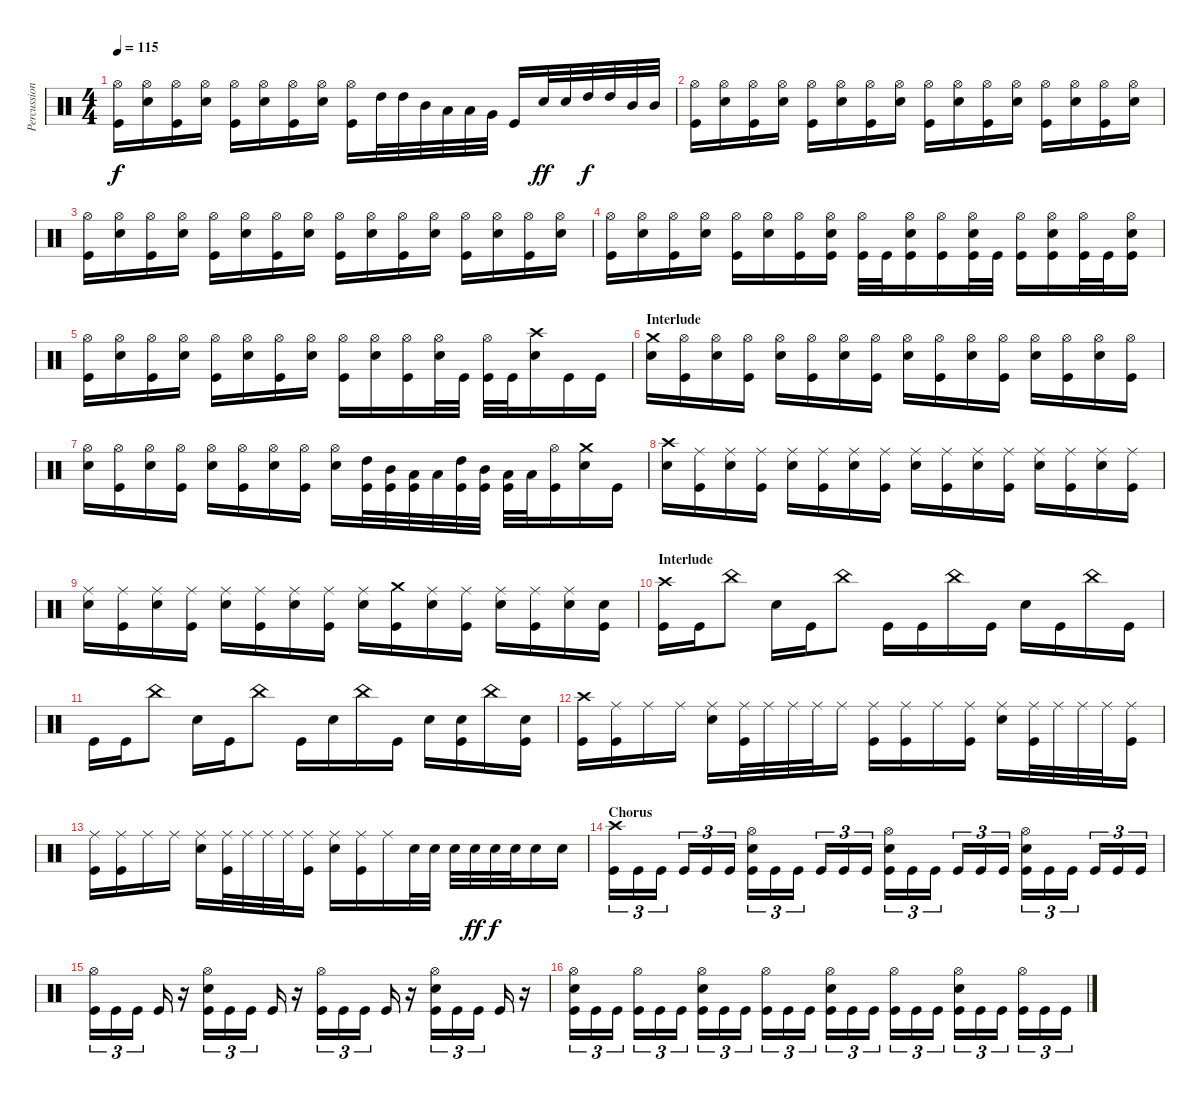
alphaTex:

\track ("Percussion" "Percussion") {instrument percussion}
\staff {score}
\articulation defaults
\ts (4 4)
\tempo 115
\clef neutral
\ks c
("Hi-Hat (open)" "Kick (hit)").16{dy f} ("Hi-Hat (open)" "Electric Snare (hit)").16 ("Hi-Hat (open)" "Kick (hit)").16 ("Hi-Hat (open)" "Electric Snare (hit)").16 ("Hi-Hat (open)" "Kick (hit)").16 ("Hi-Hat (open)" "Electric Snare (hit)").16 ("Hi-Hat (open)" "Kick (hit)").16 ("Hi-Hat (open)" "Electric Snare (hit)").16 ("Hi-Hat (open)" "Kick (hit)").16 "High Tom (hit)".32 "High Tom (hit)".32 "Mid Tom (hit)".32 "Low Tom (hit)".32 "Low Tom (hit)".32 "Very Low Tom (hit)".32 "Kick (hit)".16 "Electric Snare (hit)".32{dy ff} "Electric Snare (hit)".32 "High Tom (hit)".32{dy f} "High Tom (hit)".32 "Mid Tom (hit)".32 "Mid Tom (hit)".32 |
("Hi-Hat (open)" "Kick (hit)").16 ("Hi-Hat (open)" "Electric Snare (hit)").16 ("Hi-Hat (open)" "Kick (hit)").16 ("Hi-Hat (open)" "Electric Snare (hit)").16 ("Hi-Hat (open)" "Kick (hit)").16 ("Hi-Hat (open)" "Electric Snare (hit)").16 ("Hi-Hat (open)" "Kick (hit)").16 ("Hi-Hat (open)" "Electric Snare (hit)").16 ("Hi-Hat (open)" "Kick (hit)").16 ("Hi-Hat (open)" "Electric Snare (hit)").16 ("Hi-Hat (open)" "Kick (hit)").16 ("Hi-Hat (open)" "Electric Snare (hit)").16 ("Hi-Hat (open)" "Kick (hit)").16 ("Hi-Hat (open)" "Electric Snare (hit)").16 ("Hi-Hat (open)" "Kick (hit)").16 ("Hi-Hat (open)" "Electric Snare (hit)").16 |
("Hi-Hat (open)" "Kick (hit)").16 ("Hi-Hat (open)" "Electric Snare (hit)").16 ("Hi-Hat (open)" "Kick (hit)").16 ("Hi-Hat (open)" "Electric Snare (hit)").16 ("Hi-Hat (open)" "Kick (hit)").16 ("Hi-Hat (open)" "Electric Snare (hit)").16 ("Hi-Hat (open)" "Kick (hit)").16 ("Hi-Hat (open)" "Electric Snare (hit)").16 ("Hi-Hat (open)" "Kick (hit)").16 ("Hi-Hat (open)" "Electric Snare (hit)").16 ("Hi-Hat (open)" "Kick (hit)").16 ("Hi-Hat (open)" "Electric Snare (hit)").16 ("Hi-Hat (open)" "Kick (hit)").16 ("Hi-Hat (open)" "Electric Snare (hit)").16 ("Hi-Hat (open)" "Kick (hit)").16 ("Hi-Hat (open)" "Electric Snare (hit)").16 |
("Hi-Hat (open)" "Kick (hit)").16 ("Hi-Hat (open)" "Electric Snare (hit)").16 ("Hi-Hat (open)" "Kick (hit)").16 ("Hi-Hat (open)" "Electric Snare (hit)").16 ("Hi-Hat (open)" "Kick (hit)").16 ("Hi-Hat (open)" "Electric Snare (hit)").16 ("Hi-Hat (open)" "Kick (hit)").16 ("Hi-Hat (open)" "Electric Snare (hit)" "Kick (hit)").16 ("Hi-Hat (open)" "Kick (hit)").32 "Kick (hit)".32 ("Hi-Hat (open)" "Electric Snare (hit)" "Kick (hit)").16 ("Hi-Hat (open)" "Kick (hit)").16 ("Hi-Hat (open)" "Electric Snare (hit)" "Kick (hit)").32 "Kick (hit)".32 ("Hi-Hat (open)" "Kick (hit)").16 ("Hi-Hat (open)" "Electric Snare (hit)" "Kick (hit)").16 ("Hi-Hat (open)" "Kick (hit)").32 "Kick (hit)".32 ("Hi-Hat (open)" "Electric Snare (hit)" "Kick (hit)").16 |
("Hi-Hat (open)" "Kick (hit)").16 ("Hi-Hat (open)" "Electric Snare (hit)").16 ("Hi-Hat (open)" "Kick (hit)").16 ("Hi-Hat (open)" "Electric Snare (hit)").16 ("Hi-Hat (open)" "Kick (hit)").16 ("Hi-Hat (open)" "Electric Snare (hit)").16 ("Hi-Hat (open)" "Kick (hit)").16 ("Hi-Hat (open)" "Electric Snare (hit)").16 ("Hi-Hat (open)" "Kick (hit)").16 ("Hi-Hat (open)" "Electric Snare (hit)").16 ("Hi-Hat (open)" "Kick (hit)").16 ("Hi-Hat (open)" "Electric Snare (hit)").32 "Kick (hit)".32 ("Hi-Hat (open)" "Kick (hit)").32 "Kick (hit)".32 ("Crash high (hit)" "Electric Snare (hit)").16 "Kick (hit)".16 "Kick (hit)".16 |
\section ("" "Interlude")
("Crash medium (hit)" "Electric Snare (hit)").16 ("Hi-Hat (open)" "Kick (hit)").16 ("Hi-Hat (open)" "Electric Snare (hit)").16 ("Hi-Hat (open)" "Kick (hit)").16 ("Hi-Hat (open)" "Electric Snare (hit)").16 ("Hi-Hat (open)" "Kick (hit)").16 ("Hi-Hat (open)" "Electric Snare (hit)").16 ("Hi-Hat (open)" "Kick (hit)").16 ("Hi-Hat (open)" "Electric Snare (hit)").16 ("Hi-Hat (open)" "Kick (hit)").16 ("Hi-Hat (open)" "Electric Snare (hit)").16 ("Hi-Hat (open)" "Kick (hit)").16 ("Hi-Hat (open)" "Electric Snare (hit)").16 ("Hi-Hat (open)" "Kick (hit)").16 ("Hi-Hat (open)" "Electric Snare (hit)").16 ("Hi-Hat (open)" "Kick (hit)").16 |
("Hi-Hat (open)" "Electric Snare (hit)").16 ("Hi-Hat (open)" "Kick (hit)").16 ("Hi-Hat (open)" "Electric Snare (hit)").16 ("Hi-Hat (open)" "Kick (hit)").16 ("Hi-Hat (open)" "Electric Snare (hit)").16 ("Hi-Hat (open)" "Kick (hit)").16 ("Hi-Hat (open)" "Electric Snare (hit)").16 ("Hi-Hat (open)" "Kick (hit)").16 ("Hi-Hat (open)" "Electric Snare (hit)").16 ("High Tom (hit)" "Kick (hit)").32 ("Mid Tom (hit)" "Kick (hit)").32 ("Low Tom (hit)" "Kick (hit)").32 "Low Tom (hit)".32 ("High Tom (hit)" "Kick (hit)").32 ("Mid Tom (hit)" "Kick (hit)").32 ("Low Tom (hit)" "Kick (hit)").32 "Low Tom (hit)".32 ("Hi-Hat (open)" "Kick (hit)").16 ("Crash medium (hit)" "Electric Snare (hit)").16 "Kick (hit)".16 |
("Crash high (hit)" "Electric Snare (hit)").16 ("Ride (middle)" "Kick (hit)").16 ("Ride (middle)" "Electric Snare (hit)").16 ("Ride (middle)" "Kick (hit)").16 ("Ride (middle)" "Electric Snare (hit)").16 ("Ride (middle)" "Kick (hit)").16 ("Ride (middle)" "Electric Snare (hit)").16 ("Ride (middle)" "Kick (hit)").16 ("Ride (middle)" "Electric Snare (hit)").16 ("Ride (middle)" "Kick (hit)").16 ("Ride (middle)" "Electric Snare (hit)").16 ("Ride (middle)" "Kick (hit)").16 ("Ride (middle)" "Electric Snare (hit)").16 ("Ride (middle)" "Kick (hit)").16 ("Ride (middle)" "Electric Snare (hit)").16 ("Ride (middle)" "Kick (hit)").16 |
("Ride (middle)" "Electric Snare (hit)").16 ("Ride (middle)" "Kick (hit)").16 ("Ride (middle)" "Electric Snare (hit)").16 ("Ride (middle)" "Kick (hit)").16 ("Ride (middle)" "Electric Snare (hit)").16 ("Ride (middle)" "Kick (hit)").16 ("Ride (middle)" "Electric Snare (hit)").16 ("Ride (middle)" "Kick (hit)").16 ("Ride (middle)" "Electric Snare (hit)").16 ("Crash medium (hit)" "Kick (hit)").16 ("Ride (middle)" "Electric Snare (hit)").16 ("Ride (middle)" "Kick (hit)").16 ("Ride (middle)" "Electric Snare (hit)").16 ("Ride (middle)" "Kick (hit)").16 ("Ride (middle)" "Electric Snare (hit)").16 ("Electric Snare (hit)" "Kick (hit)").16 |
\section ("" "Interlude")
("Crash high (hit)" "Kick (hit)").16 "Kick (hit)".16 "China (hit)".8 "Electric Snare (hit)".16 "Kick (hit)".16 "China (hit)".8 "Kick (hit)".16 "Kick (hit)".16 "China (hit)".16 "Kick (hit)".16 "Electric Snare (hit)".16 "Kick (hit)".16 "China (hit)".16 "Kick (hit)".16 |
"Kick (hit)".16 "Kick (hit)".16 "China (hit)".8 "Electric Snare (hit)".16 "Kick (hit)".16 "China (hit)".8 "Kick (hit)".16 "Electric Snare (hit)".16 "China (hit)".16 "Kick (hit)".16 "Electric Snare (hit)".16 ("Electric Snare (hit)" "Kick (hit)").16 "China (hit)".16 ("Electric Snare (hit)" "Kick (hit)").16 |
("Crash high (hit)" "Kick (hit)").16 ("Ride (middle)" "Kick (hit)").16 "Ride (middle)".16 "Ride (middle)".16 ("Ride (middle)" "Electric Snare (hit)").16 ("Ride (middle)" "Kick (hit)").32 "Ride (middle)".32 "Ride (middle)".32 "Ride (middle)".32 "Ride (middle)".16 ("Ride (middle)" "Kick (hit)").16 ("Ride (middle)" "Kick (hit)").16 "Ride (middle)".16 ("Ride (middle)" "Kick (hit)").16 ("Ride (middle)" "Electric Snare (hit)").16 ("Ride (middle)" "Kick (hit)").32 "Ride (middle)".32 "Ride (middle)".32 "Ride (middle)".32 ("Ride (middle)" "Kick (hit)").16 |
("Ride (middle)" "Kick (hit)").16 ("Ride (middle)" "Kick (hit)").16 "Ride (middle)".16 "Ride (middle)".16 ("Ride (middle)" "Electric Snare (hit)").16 ("Ride (middle)" "Kick (hit)").32 "Ride (middle)".32 "Ride (middle)".32 "Ride (middle)".32 ("Ride (middle)" "Kick (hit)").16 ("Ride (middle)" "Electric Snare (hit)").16 ("Ride (middle)" "Kick (hit)").16 "Ride (middle)".16 "Electric Snare (hit)".32 "Electric Snare (hit)".32 "Electric Snare (hit)".32 "Electric Snare (hit)".32{dy ff} "Electric Snare (hit)".32{dy f} "Electric Snare (hit)".32 "Electric Snare (hit)".16 "Electric Snare (hit)".16 |
\section ("" "Chorus")
("Crash high (hit)" "Kick (hit)").16{tu (3 2)} "Kick (hit)".16{tu (3 2)} "Kick (hit)".16{tu (3 2)} "Kick (hit)".16{tu (3 2)} "Kick (hit)".16{tu (3 2)} "Kick (hit)".16{tu (3 2)} ("Hi-Hat (open)" "Electric Snare (hit)" "Kick (hit)").16{tu (3 2)} "Kick (hit)".16{tu (3 2)} "Kick (hit)".16{tu (3 2)} "Kick (hit)".16{tu (3 2)} "Kick (hit)".16{tu (3 2)} "Kick (hit)".16{tu (3 2)} ("Hi-Hat (open)" "Electric Snare (hit)" "Kick (hit)").16{tu (3 2)} "Kick (hit)".16{tu (3 2)} "Kick (hit)".16{tu (3 2)} "Kick (hit)".16{tu (3 2)} "Kick (hit)".16{tu (3 2)} "Kick (hit)".16{tu (3 2)} ("Hi-Hat (open)" "Electric Snare (hit)" "Kick (hit)").16{tu (3 2)} "Kick (hit)".16{tu (3 2)} "Kick (hit)".16{tu (3 2)} "Kick (hit)".16{tu (3 2)} "Kick (hit)".16{tu (3 2)} "Kick (hit)".16{tu (3 2)} |
("Hi-Hat (open)" "Kick (hit)").16{tu (3 2)} "Kick (hit)".16{tu (3 2)} "Kick (hit)".16{tu (3 2)} "Kick (hit)".16 r.16 ("Hi-Hat (open)" "Electric Snare (hit)" "Kick (hit)").16{tu (3 2)} "Kick (hit)".16{tu (3 2)} "Kick (hit)".16{tu (3 2)} "Kick (hit)".16 r.16 ("Hi-Hat (open)" "Kick (hit)").16{tu (3 2)} "Kick (hit)".16{tu (3 2)} "Kick (hit)".16{tu (3 2)} "Kick (hit)".16 r.16 ("Hi-Hat (open)" "Electric Snare (hit)" "Kick (hit)").16{tu (3 2)} "Kick (hit)".16{tu (3 2)} "Kick (hit)".16{tu (3 2)} "Kick (hit)".16 r.16 |
("Hi-Hat (open)" "Electric Snare (hit)" "Kick (hit)").16{tu (3 2)} "Kick (hit)".16{tu (3 2)} "Kick (hit)".16{tu (3 2)} ("Hi-Hat (open)" "Kick (hit)").16{tu (3 2)} "Kick (hit)".16{tu (3 2)} "Kick (hit)".16{tu (3 2)} ("Hi-Hat (open)" "Electric Snare (hit)" "Kick (hit)").16{tu (3 2)} "Kick (hit)".16{tu (3 2)} "Kick (hit)".16{tu (3 2)} ("Hi-Hat (open)" "Kick (hit)").16{tu (3 2)} "Kick (hit)".16{tu (3 2)} "Kick (hit)".16{tu (3 2)} ("Hi-Hat (open)" "Electric Snare (hit)" "Kick (hit)").16{tu (3 2)} "Kick (hit)".16{tu (3 2)} "Kick (hit)".16{tu (3 2)} ("Hi-Hat (open)" "Kick (hit)").16{tu (3 2)} "Kick (hit)".16{tu (3 2)} "Kick (hit)".16{tu (3 2)} ("Hi-Hat (open)" "Electric Snare (hit)" "Kick (hit)").16{tu (3 2)} "Kick (hit)".16{tu (3 2)} "Kick (hit)".16{tu (3 2)} ("Hi-Hat (open)" "Kick (hit)").16{tu (3 2)} "Kick (hit)".16{tu (3 2)} "Kick (hit)".16{tu (3 2)}
